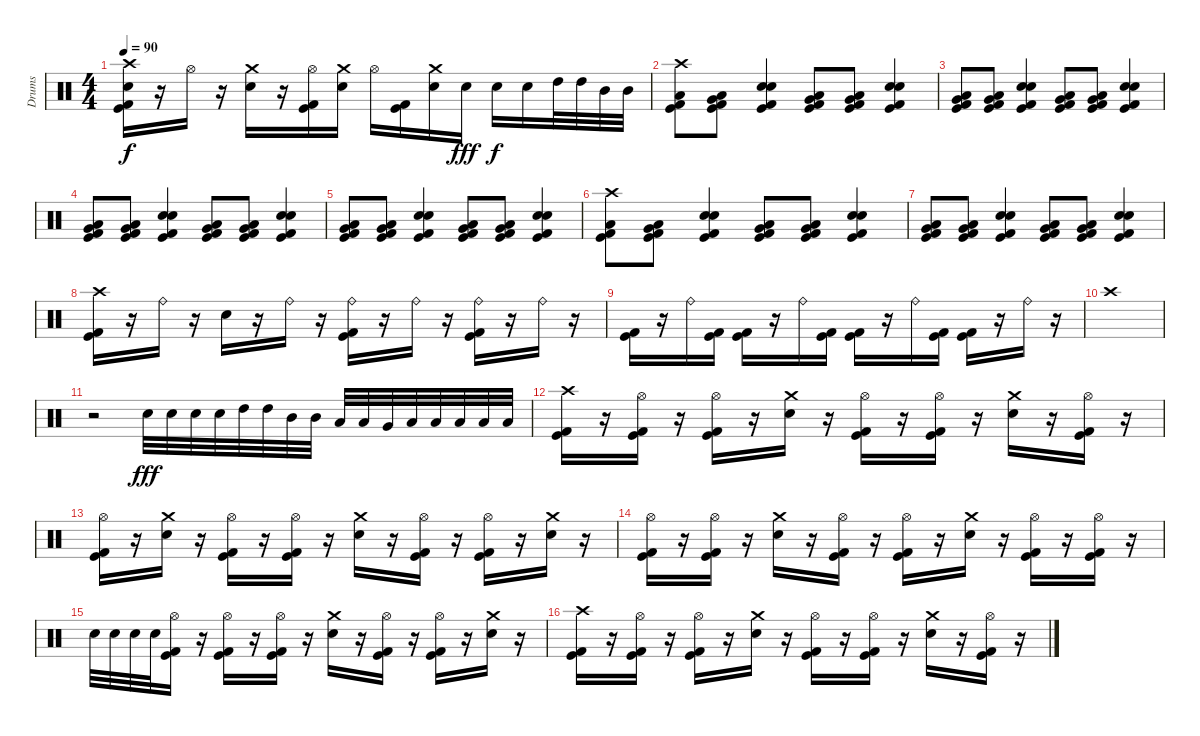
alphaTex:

\track ("Drums" "Drums") {instrument percussion}
\staff {score}
\articulation defaults
\ts (4 4)
\tempo 90
\clef neutral
\ks c
("Crash high (hit)" "Electric Snare (hit)" "Kick (hit)" "Kick (hit) 2").16{dy f} r.16 "Hi-Hat (open)".16 r.16 ("Crash medium (hit)" "Electric Snare (hit)").16 r.16 ("Hi-Hat (open)" "Kick (hit)" "Kick (hit) 2").16 ("Crash medium (hit)" "Electric Snare (hit)").16 "Hi-Hat (open)".16 ("Kick (hit)" "Kick (hit) 2").16 ("Crash medium (hit)" "Electric Snare (hit)").16 "Electric Snare (hit)".16{dy fff} "Electric Snare (hit)".16{dy f} "Electric Snare (hit)".16 "High Tom (hit)".32 "High Tom (hit)".32 "Mid Tom (hit)".32 "Mid Tom (hit)".32 |
("Crash high (hit)" "Low Tom (hit)" "Kick (hit)" "Kick (hit) 2").8 ("Very Low Tom (hit)" "Low Tom (hit)" "Kick (hit)" "Kick (hit) 2").8 ("Electric Snare (hit)" "Electric Snare (hit)" "Kick (hit)" "Kick (hit) 2").4 ("Very Low Tom (hit)" "Low Tom (hit)" "Kick (hit)" "Kick (hit) 2").8 ("Very Low Tom (hit)" "Low Tom (hit)" "Kick (hit)" "Kick (hit) 2").8 ("Electric Snare (hit)" "Electric Snare (hit)" "Kick (hit)" "Kick (hit) 2").4 |
("Very Low Tom (hit)" "Low Tom (hit)" "Kick (hit)" "Kick (hit) 2").8 ("Very Low Tom (hit)" "Low Tom (hit)" "Kick (hit)" "Kick (hit) 2").8 ("Electric Snare (hit)" "Electric Snare (hit)" "Kick (hit)" "Kick (hit) 2").4 ("Very Low Tom (hit)" "Low Tom (hit)" "Kick (hit)" "Kick (hit) 2").8 ("Very Low Tom (hit)" "Low Tom (hit)" "Kick (hit)" "Kick (hit) 2").8 ("Electric Snare (hit)" "Electric Snare (hit)" "Kick (hit)" "Kick (hit) 2").4 |
("Very Low Tom (hit)" "Low Tom (hit)" "Kick (hit)" "Kick (hit) 2").8 ("Very Low Tom (hit)" "Low Tom (hit)" "Kick (hit)" "Kick (hit) 2").8 ("Electric Snare (hit)" "Electric Snare (hit)" "Kick (hit)" "Kick (hit) 2").4 ("Very Low Tom (hit)" "Low Tom (hit)" "Kick (hit)" "Kick (hit) 2").8 ("Very Low Tom (hit)" "Low Tom (hit)" "Kick (hit)" "Kick (hit) 2").8 ("Electric Snare (hit)" "Electric Snare (hit)" "Kick (hit)" "Kick (hit) 2").4 |
("Very Low Tom (hit)" "Low Tom (hit)" "Kick (hit)" "Kick (hit) 2").8 ("Very Low Tom (hit)" "Low Tom (hit)" "Kick (hit)" "Kick (hit) 2").8 ("Electric Snare (hit)" "Electric Snare (hit)" "Kick (hit)" "Kick (hit) 2").4 ("Very Low Tom (hit)" "Low Tom (hit)" "Kick (hit)" "Kick (hit) 2").8 ("Very Low Tom (hit)" "Low Tom (hit)" "Kick (hit)" "Kick (hit) 2").8 ("Electric Snare (hit)" "Electric Snare (hit)" "Kick (hit)" "Kick (hit) 2").4 |
("Crash high (hit)" "Low Tom (hit)" "Kick (hit)" "Kick (hit) 2").8 ("Very Low Tom (hit)" "Low Tom (hit)" "Kick (hit)" "Kick (hit) 2").8 ("Electric Snare (hit)" "Electric Snare (hit)" "Kick (hit)" "Kick (hit) 2").4 ("Very Low Tom (hit)" "Low Tom (hit)" "Kick (hit)" "Kick (hit) 2").8 ("Very Low Tom (hit)" "Low Tom (hit)" "Kick (hit)" "Kick (hit) 2").8 ("Electric Snare (hit)" "Electric Snare (hit)" "Kick (hit)" "Kick (hit) 2").4 |
("Very Low Tom (hit)" "Low Tom (hit)" "Kick (hit)" "Kick (hit) 2").8 ("Very Low Tom (hit)" "Low Tom (hit)" "Kick (hit)" "Kick (hit) 2").8 ("Electric Snare (hit)" "Electric Snare (hit)" "Kick (hit)" "Kick (hit) 2").4 ("Very Low Tom (hit)" "Low Tom (hit)" "Kick (hit)" "Kick (hit) 2").8 ("Very Low Tom (hit)" "Low Tom (hit)" "Kick (hit)" "Kick (hit) 2").8 ("Electric Snare (hit)" "Electric Snare (hit)" "Kick (hit)" "Kick (hit) 2").4 |
("Crash high (hit)" "Kick (hit)" "Kick (hit) 2").16 r.16 "Ride (bell)".16 r.16 "Electric Snare (hit)".16 r.16 "Ride (bell)".16 r.16 ("Ride (bell)" "Kick (hit)" "Kick (hit) 2").16 r.16 "Ride (bell)".16 r.16 ("Ride (bell)" "Kick (hit)" "Kick (hit) 2").16 r.16 "Ride (bell)".16 r.16 |
("Kick (hit)" "Kick (hit) 2").16 r.16 "Ride (bell)".16 ("Kick (hit)" "Kick (hit) 2").16 ("Kick (hit)" "Kick (hit) 2").16 r.16 "Ride (bell)".16 ("Kick (hit)" "Kick (hit) 2").16 ("Kick (hit)" "Kick (hit) 2").16 r.16 "Ride (bell)".16 ("Kick (hit)" "Kick (hit) 2").16 ("Kick (hit)" "Kick (hit) 2").16 r.16 "Ride (bell)".16 r.16 |
"Crash high (hit)".1 |
r.2 "Electric Snare (hit)".32{dy fff} "Electric Snare (hit)".32 "Electric Snare (hit)".32 "Electric Snare (hit)".32 "High Tom (hit)".32 "High Tom (hit)".32 "Mid Tom (hit)".32 "Mid Tom (hit)".32 "Low Tom (hit)".32 "Low Tom (hit)".32 "Very Low Tom (hit)".32 "Low Floor Tom (hit)".32 "Low Floor Tom (hit)".32 "Low Floor Tom (hit)".32 "Low Floor Tom (hit)".32 "Low Floor Tom (hit)".32 |
("Crash high (hit)" "Kick (hit)" "Kick (hit) 2").16 r.16 ("Hi-Hat (open)" "Kick (hit)" "Kick (hit) 2").16 r.16 ("Hi-Hat (open)" "Kick (hit)" "Kick (hit) 2").16 r.16 ("Crash medium (hit)" "Electric Snare (hit)").16 r.16 ("Hi-Hat (open)" "Kick (hit)" "Kick (hit) 2").16 r.16 ("Hi-Hat (open)" "Kick (hit)" "Kick (hit) 2").16 r.16 ("Crash medium (hit)" "Electric Snare (hit)").16 r.16 ("Hi-Hat (open)" "Kick (hit)" "Kick (hit) 2").16 r.16 |
("Hi-Hat (open)" "Kick (hit)" "Kick (hit) 2").16 r.16 ("Crash medium (hit)" "Electric Snare (hit)").16 r.16 ("Hi-Hat (open)" "Kick (hit)" "Kick (hit) 2").16 r.16 ("Hi-Hat (open)" "Kick (hit)" "Kick (hit) 2").16 r.16 ("Crash medium (hit)" "Electric Snare (hit)").16 r.16 ("Hi-Hat (open)" "Kick (hit)" "Kick (hit) 2").16 r.16 ("Hi-Hat (open)" "Kick (hit)" "Kick (hit) 2").16 r.16 ("Crash medium (hit)" "Electric Snare (hit)").16 r.16 |
("Hi-Hat (open)" "Kick (hit)" "Kick (hit) 2").16 r.16 ("Hi-Hat (open)" "Kick (hit)" "Kick (hit) 2").16 r.16 ("Crash medium (hit)" "Electric Snare (hit)").16 r.16 ("Hi-Hat (open)" "Kick (hit)" "Kick (hit) 2").16 r.16 ("Hi-Hat (open)" "Kick (hit)" "Kick (hit) 2").16 r.16 ("Crash medium (hit)" "Electric Snare (hit)").16 r.16 ("Hi-Hat (open)" "Kick (hit)" "Kick (hit) 2").16 r.16 ("Hi-Hat (open)" "Kick (hit)" "Kick (hit) 2").16 r.16 |
"Electric Snare (hit)".32 "Electric Snare (hit)".32 "Electric Snare (hit)".32 "Electric Snare (hit)".32 ("Hi-Hat (open)" "Kick (hit)" "Kick (hit) 2").16 r.16 ("Hi-Hat (open)" "Kick (hit)" "Kick (hit) 2").16 r.16 ("Hi-Hat (open)" "Kick (hit)" "Kick (hit) 2").16 r.16 ("Crash medium (hit)" "Electric Snare (hit)").16 r.16 ("Hi-Hat (open)" "Kick (hit)" "Kick (hit) 2").16 r.16 ("Hi-Hat (open)" "Kick (hit)" "Kick (hit) 2").16 r.16 ("Crash medium (hit)" "Electric Snare (hit)").16 r.16 |
("Crash high (hit)" "Kick (hit)" "Kick (hit) 2").16 r.16 ("Hi-Hat (open)" "Kick (hit)" "Kick (hit) 2").16 r.16 ("Hi-Hat (open)" "Kick (hit)" "Kick (hit) 2").16 r.16 ("Crash medium (hit)" "Electric Snare (hit)").16 r.16 ("Hi-Hat (open)" "Kick (hit)" "Kick (hit) 2").16 r.16 ("Hi-Hat (open)" "Kick (hit)" "Kick (hit) 2").16 r.16 ("Crash medium (hit)" "Electric Snare (hit)").16 r.16 ("Hi-Hat (open)" "Kick (hit)" "Kick (hit) 2").16 r.16
